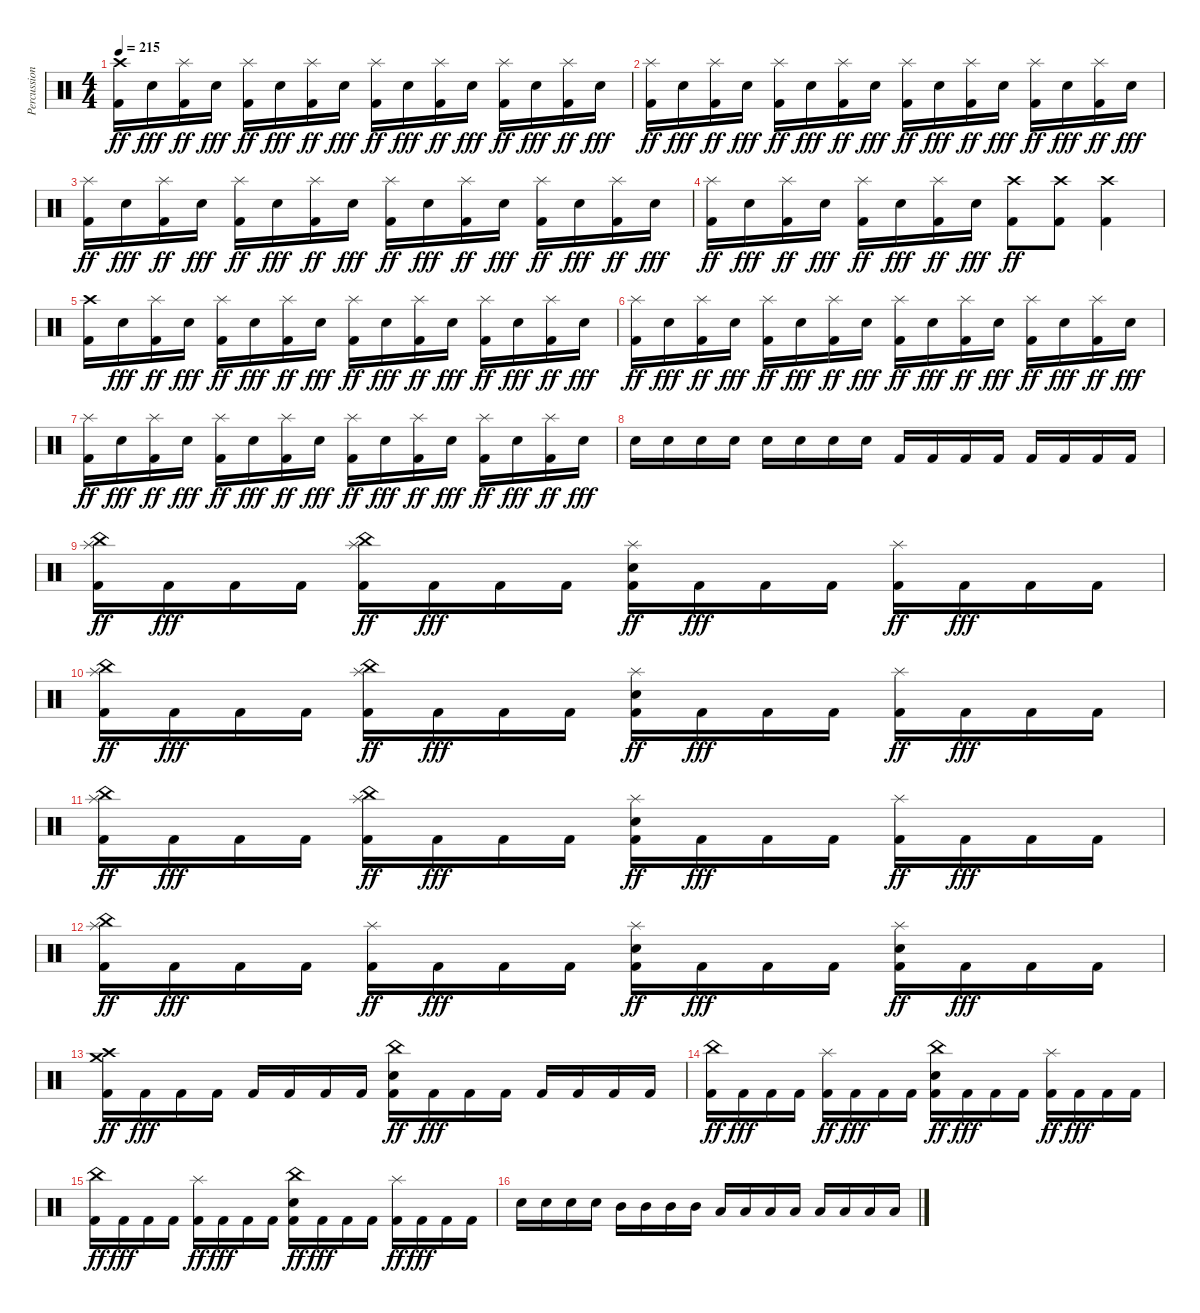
\track ("Percussion" "Percussion") {instrument percussion}
\staff {score}
\articulation defaults
\ts (4 4)
\tempo 215
\clef neutral
\ks c
("Kick (hit) 2" "Crash high (hit)").16{dy ff} "Electric Snare (hit)".16{dy fff} ("Kick (hit) 2" "Splash (hit)").16{dy ff} "Electric Snare (hit)".16{dy fff} ("Kick (hit) 2" "Splash (hit)").16{dy ff} "Electric Snare (hit)".16{dy fff} ("Kick (hit) 2" "Splash (hit)").16{dy ff} "Electric Snare (hit)".16{dy fff} ("Kick (hit) 2" "Splash (hit)").16{dy ff} "Electric Snare (hit)".16{dy fff} ("Kick (hit) 2" "Splash (hit)").16{dy ff} "Electric Snare (hit)".16{dy fff} ("Kick (hit) 2" "Splash (hit)").16{dy ff} "Electric Snare (hit)".16{dy fff} ("Kick (hit) 2" "Splash (hit)").16{dy ff} "Electric Snare (hit)".16{dy fff} |
("Kick (hit) 2" "Splash (hit)").16{dy ff} "Electric Snare (hit)".16{dy fff} ("Kick (hit) 2" "Splash (hit)").16{dy ff} "Electric Snare (hit)".16{dy fff} ("Kick (hit) 2" "Splash (hit)").16{dy ff} "Electric Snare (hit)".16{dy fff} ("Kick (hit) 2" "Splash (hit)").16{dy ff} "Electric Snare (hit)".16{dy fff} ("Kick (hit) 2" "Splash (hit)").16{dy ff} "Electric Snare (hit)".16{dy fff} ("Kick (hit) 2" "Splash (hit)").16{dy ff} "Electric Snare (hit)".16{dy fff} ("Kick (hit) 2" "Splash (hit)").16{dy ff} "Electric Snare (hit)".16{dy fff} ("Kick (hit) 2" "Splash (hit)").16{dy ff} "Electric Snare (hit)".16{dy fff} |
("Kick (hit) 2" "Splash (hit)").16{dy ff} "Electric Snare (hit)".16{dy fff} ("Kick (hit) 2" "Splash (hit)").16{dy ff} "Electric Snare (hit)".16{dy fff} ("Kick (hit) 2" "Splash (hit)").16{dy ff} "Electric Snare (hit)".16{dy fff} ("Kick (hit) 2" "Splash (hit)").16{dy ff} "Electric Snare (hit)".16{dy fff} ("Kick (hit) 2" "Splash (hit)").16{dy ff} "Electric Snare (hit)".16{dy fff} ("Kick (hit) 2" "Splash (hit)").16{dy ff} "Electric Snare (hit)".16{dy fff} ("Kick (hit) 2" "Splash (hit)").16{dy ff} "Electric Snare (hit)".16{dy fff} ("Kick (hit) 2" "Splash (hit)").16{dy ff} "Electric Snare (hit)".16{dy fff} |
("Kick (hit) 2" "Splash (hit)").16{dy ff} "Electric Snare (hit)".16{dy fff} ("Kick (hit) 2" "Splash (hit)").16{dy ff} "Electric Snare (hit)".16{dy fff} ("Kick (hit) 2" "Splash (hit)").16{dy ff} "Electric Snare (hit)".16{dy fff} ("Kick (hit) 2" "Splash (hit)").16{dy ff} "Electric Snare (hit)".16{dy fff} ("Kick (hit) 2" "Crash high (hit)").8{dy ff} ("Kick (hit) 2" "Crash high (hit)").8 ("Kick (hit) 2" "Crash high (hit)").4 |
("Kick (hit) 2" "Crash high (hit)").16 "Electric Snare (hit)".16{dy fff} ("Kick (hit) 2" "Splash (hit)").16{dy ff} "Electric Snare (hit)".16{dy fff} ("Kick (hit) 2" "Splash (hit)").16{dy ff} "Electric Snare (hit)".16{dy fff} ("Kick (hit) 2" "Splash (hit)").16{dy ff} "Electric Snare (hit)".16{dy fff} ("Kick (hit) 2" "Splash (hit)").16{dy ff} "Electric Snare (hit)".16{dy fff} ("Kick (hit) 2" "Splash (hit)").16{dy ff} "Electric Snare (hit)".16{dy fff} ("Kick (hit) 2" "Splash (hit)").16{dy ff} "Electric Snare (hit)".16{dy fff} ("Kick (hit) 2" "Splash (hit)").16{dy ff} "Electric Snare (hit)".16{dy fff} |
("Kick (hit) 2" "Splash (hit)").16{dy ff} "Electric Snare (hit)".16{dy fff} ("Kick (hit) 2" "Splash (hit)").16{dy ff} "Electric Snare (hit)".16{dy fff} ("Kick (hit) 2" "Splash (hit)").16{dy ff} "Electric Snare (hit)".16{dy fff} ("Kick (hit) 2" "Splash (hit)").16{dy ff} "Electric Snare (hit)".16{dy fff} ("Kick (hit) 2" "Splash (hit)").16{dy ff} "Electric Snare (hit)".16{dy fff} ("Kick (hit) 2" "Splash (hit)").16{dy ff} "Electric Snare (hit)".16{dy fff} ("Kick (hit) 2" "Splash (hit)").16{dy ff} "Electric Snare (hit)".16{dy fff} ("Kick (hit) 2" "Splash (hit)").16{dy ff} "Electric Snare (hit)".16{dy fff} |
("Kick (hit) 2" "Splash (hit)").16{dy ff} "Electric Snare (hit)".16{dy fff} ("Kick (hit) 2" "Splash (hit)").16{dy ff} "Electric Snare (hit)".16{dy fff} ("Kick (hit) 2" "Splash (hit)").16{dy ff} "Electric Snare (hit)".16{dy fff} ("Kick (hit) 2" "Splash (hit)").16{dy ff} "Electric Snare (hit)".16{dy fff} ("Kick (hit) 2" "Splash (hit)").16{dy ff} "Electric Snare (hit)".16{dy fff} ("Kick (hit) 2" "Splash (hit)").16{dy ff} "Electric Snare (hit)".16{dy fff} ("Kick (hit) 2" "Splash (hit)").16{dy ff} "Electric Snare (hit)".16{dy fff} ("Kick (hit) 2" "Splash (hit)").16{dy ff} "Electric Snare (hit)".16{dy fff} |
"Electric Snare (hit)".16 "Electric Snare (hit)".16 "Electric Snare (hit)".16 "Electric Snare (hit)".16 "Electric Snare (hit)".16 "Electric Snare (hit)".16 "Electric Snare (hit)".16 "Electric Snare (hit)".16 "Kick (hit) 2".16 "Kick (hit) 2".16 "Kick (hit) 2".16 "Kick (hit) 2".16 "Kick (hit) 2".16 "Kick (hit) 2".16 "Kick (hit) 2".16 "Kick (hit) 2".16 |
("Kick (hit) 2" "Splash (hit)" "China (hit)").16{dy ff} "Kick (hit) 2".16{dy fff} "Kick (hit) 2".16 "Kick (hit) 2".16 ("Kick (hit) 2" "Splash (hit)" "China (hit)").16{dy ff} "Kick (hit) 2".16{dy fff} "Kick (hit) 2".16 "Kick (hit) 2".16 ("Kick (hit) 2" "Electric Snare (hit)" "Splash (hit)").16{dy ff} "Kick (hit) 2".16{dy fff} "Kick (hit) 2".16 "Kick (hit) 2".16 ("Kick (hit) 2" "Splash (hit)").16{dy ff} "Kick (hit) 2".16{dy fff} "Kick (hit) 2".16 "Kick (hit) 2".16 |
("Kick (hit) 2" "Splash (hit)" "China (hit)").16{dy ff} "Kick (hit) 2".16{dy fff} "Kick (hit) 2".16 "Kick (hit) 2".16 ("Kick (hit) 2" "Splash (hit)" "China (hit)").16{dy ff} "Kick (hit) 2".16{dy fff} "Kick (hit) 2".16 "Kick (hit) 2".16 ("Kick (hit) 2" "Electric Snare (hit)" "Splash (hit)").16{dy ff} "Kick (hit) 2".16{dy fff} "Kick (hit) 2".16 "Kick (hit) 2".16 ("Kick (hit) 2" "Splash (hit)").16{dy ff} "Kick (hit) 2".16{dy fff} "Kick (hit) 2".16 "Kick (hit) 2".16 |
("Kick (hit) 2" "Splash (hit)" "China (hit)").16{dy ff} "Kick (hit) 2".16{dy fff} "Kick (hit) 2".16 "Kick (hit) 2".16 ("Kick (hit) 2" "Splash (hit)" "China (hit)").16{dy ff} "Kick (hit) 2".16{dy fff} "Kick (hit) 2".16 "Kick (hit) 2".16 ("Kick (hit) 2" "Electric Snare (hit)" "Splash (hit)").16{dy ff} "Kick (hit) 2".16{dy fff} "Kick (hit) 2".16 "Kick (hit) 2".16 ("Kick (hit) 2" "Splash (hit)").16{dy ff} "Kick (hit) 2".16{dy fff} "Kick (hit) 2".16 "Kick (hit) 2".16 |
("Kick (hit) 2" "Splash (hit)" "China (hit)").16{dy ff} "Kick (hit) 2".16{dy fff} "Kick (hit) 2".16 "Kick (hit) 2".16 ("Kick (hit) 2" "Splash (hit)").16{dy ff} "Kick (hit) 2".16{dy fff} "Kick (hit) 2".16 "Kick (hit) 2".16 ("Kick (hit) 2" "Electric Snare (hit)" "Splash (hit)").16{dy ff} "Kick (hit) 2".16{dy fff} "Kick (hit) 2".16 "Kick (hit) 2".16 ("Kick (hit) 2" "Electric Snare (hit)" "Splash (hit)").16{dy ff} "Kick (hit) 2".16{dy fff} "Kick (hit) 2".16 "Kick (hit) 2".16 |
("Kick (hit) 2" "Crash high (hit)" "Crash medium (hit)").16{dy ff} "Kick (hit) 2".16{dy fff} "Kick (hit) 2".16 "Kick (hit) 2".16 "Kick (hit) 2".16 "Kick (hit) 2".16 "Kick (hit) 2".16 "Kick (hit) 2".16 ("Kick (hit) 2" "Electric Snare (hit)" "China (hit)").16{dy ff} "Kick (hit) 2".16{dy fff} "Kick (hit) 2".16 "Kick (hit) 2".16 "Kick (hit) 2".16 "Kick (hit) 2".16 "Kick (hit) 2".16 "Kick (hit) 2".16 |
("Kick (hit) 2" "China (hit)").16{dy ff} "Kick (hit) 2".16{dy fff} "Kick (hit) 2".16 "Kick (hit) 2".16 ("Kick (hit) 2" "Splash (hit)").16{dy ff} "Kick (hit) 2".16{dy fff} "Kick (hit) 2".16 "Kick (hit) 2".16 ("Kick (hit) 2" "Electric Snare (hit)" "China (hit)").16{dy ff} "Kick (hit) 2".16{dy fff} "Kick (hit) 2".16 "Kick (hit) 2".16 ("Kick (hit) 2" "Splash (hit)").16{dy ff} "Kick (hit) 2".16{dy fff} "Kick (hit) 2".16 "Kick (hit) 2".16 |
("Kick (hit) 2" "China (hit)").16{dy ff} "Kick (hit) 2".16{dy fff} "Kick (hit) 2".16 "Kick (hit) 2".16 ("Kick (hit) 2" "Splash (hit)").16{dy ff} "Kick (hit) 2".16{dy fff} "Kick (hit) 2".16 "Kick (hit) 2".16 ("Kick (hit) 2" "Electric Snare (hit)" "China (hit)").16{dy ff} "Kick (hit) 2".16{dy fff} "Kick (hit) 2".16 "Kick (hit) 2".16 ("Kick (hit) 2" "Splash (hit)").16{dy ff} "Kick (hit) 2".16{dy fff} "Kick (hit) 2".16 "Kick (hit) 2".16 |
"Electric Snare (hit)".16 "Electric Snare (hit)".16 "Electric Snare (hit)".16 "Electric Snare (hit)".16 "Mid Tom (hit)".16 "Mid Tom (hit)".16 "Mid Tom (hit)".16 "Mid Tom (hit)".16 "Low Tom (hit)".16 "Low Tom (hit)".16 "Low Tom (hit)".16 "Low Tom (hit)".16 "Low Floor Tom (hit)".16 "Low Floor Tom (hit)".16 "Low Floor Tom (hit)".16 "Low Floor Tom (hit)".16
